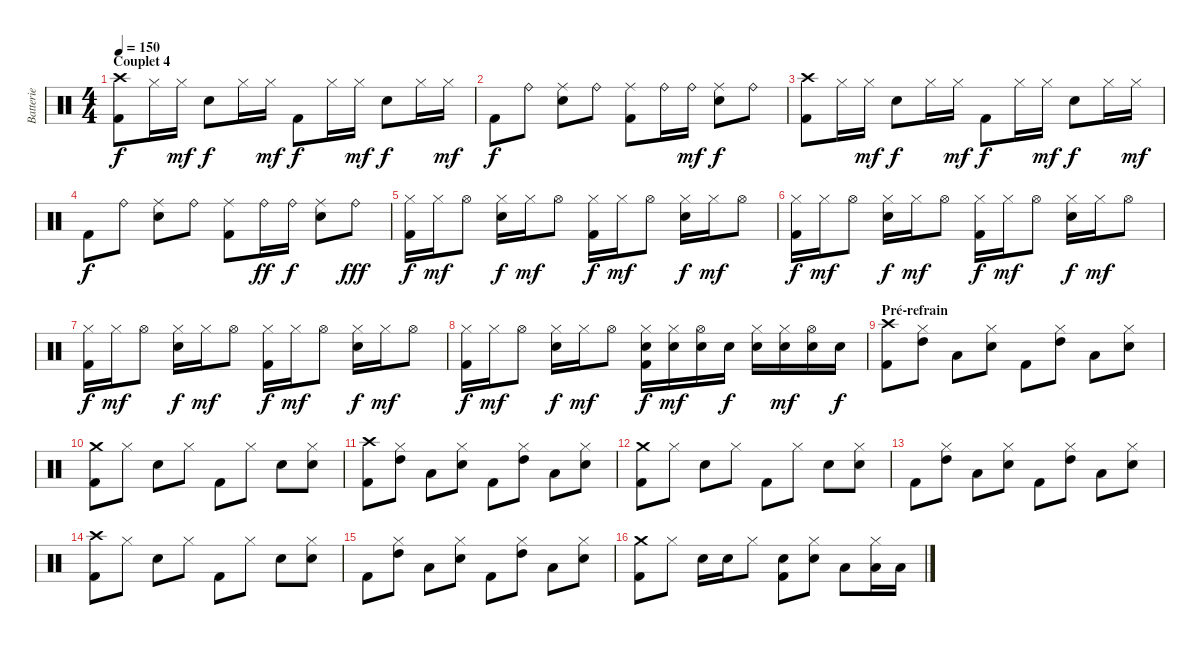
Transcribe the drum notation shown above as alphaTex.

\track ("Batterie" "Batterie") {instrument percussion}
\staff {score}
\articulation defaults
\ts (4 4)
\section ("" "Couplet 4")
\tempo 150
\clef neutral
\ks c
("Crash high (hit)" "Kick (hit) 2").8{dy f} "Hi-Hat (closed)".16 "Hi-Hat (closed)".16{dy mf} "Electric Snare (hit)".8{dy f} "Hi-Hat (closed)".16 "Hi-Hat (closed)".16{dy mf} "Kick (hit) 2".8{dy f} "Hi-Hat (closed)".16 "Hi-Hat (closed)".16{dy mf} "Electric Snare (hit)".8{dy f} "Hi-Hat (closed)".16 "Hi-Hat (closed)".16{dy mf} |
"Kick (hit) 2".8{dy f} "Ride (bell)".8 ("Ride (middle)" "Electric Snare (hit)").8 "Ride (bell)".8 ("Ride (middle)" "Kick (hit) 2").8 "Ride (bell)".16 "Ride (bell)".16{dy mf} ("Ride (middle)" "Electric Snare (hit)").8{dy f} "Ride (bell)".8 |
("Crash high (hit)" "Kick (hit) 2").8 "Hi-Hat (closed)".16 "Hi-Hat (closed)".16{dy mf} "Electric Snare (hit)".8{dy f} "Hi-Hat (closed)".16 "Hi-Hat (closed)".16{dy mf} "Kick (hit) 2".8{dy f} "Hi-Hat (closed)".16 "Hi-Hat (closed)".16{dy mf} "Electric Snare (hit)".8{dy f} "Hi-Hat (closed)".16 "Hi-Hat (closed)".16{dy mf} |
"Kick (hit) 2".8{dy f} "Ride (bell)".8 ("Ride (middle)" "Electric Snare (hit)").8 "Ride (bell)".8 ("Ride (middle)" "Kick (hit) 2").8 "Ride (bell)".16{dy ff} "Ride (bell)".16{dy f} ("Ride (middle)" "Electric Snare (hit)").8 "Ride (bell)".8{dy fff} |
("Hi-Hat (closed)" "Kick (hit) 2").16{dy f} "Hi-Hat (closed)".16{dy mf} "Hi-Hat (open)".8 ("Hi-Hat (closed)" "Electric Snare (hit)").16{dy f} "Hi-Hat (closed)".16{dy mf} "Hi-Hat (open)".8 ("Hi-Hat (closed)" "Kick (hit) 2").16{dy f} "Hi-Hat (closed)".16{dy mf} "Hi-Hat (open)".8 ("Hi-Hat (closed)" "Electric Snare (hit)").16{dy f} "Hi-Hat (closed)".16{dy mf} "Hi-Hat (open)".8 |
("Hi-Hat (closed)" "Kick (hit) 2").16{dy f} "Hi-Hat (closed)".16{dy mf} "Hi-Hat (open)".8 ("Hi-Hat (closed)" "Electric Snare (hit)").16{dy f} "Hi-Hat (closed)".16{dy mf} "Hi-Hat (open)".8 ("Hi-Hat (closed)" "Kick (hit) 2").16{dy f} "Hi-Hat (closed)".16{dy mf} "Hi-Hat (open)".8 ("Hi-Hat (closed)" "Electric Snare (hit)").16{dy f} "Hi-Hat (closed)".16{dy mf} "Hi-Hat (open)".8 |
("Hi-Hat (closed)" "Kick (hit) 2").16{dy f} "Hi-Hat (closed)".16{dy mf} "Hi-Hat (open)".8 ("Hi-Hat (closed)" "Electric Snare (hit)").16{dy f} "Hi-Hat (closed)".16{dy mf} "Hi-Hat (open)".8 ("Hi-Hat (closed)" "Kick (hit) 2").16{dy f} "Hi-Hat (closed)".16{dy mf} "Hi-Hat (open)".8 ("Hi-Hat (closed)" "Electric Snare (hit)").16{dy f} "Hi-Hat (closed)".16{dy mf} "Hi-Hat (open)".8 |
("Hi-Hat (closed)" "Kick (hit) 2").16{dy f} "Hi-Hat (closed)".16{dy mf} "Hi-Hat (open)".8 ("Hi-Hat (closed)" "Electric Snare (hit)").16{dy f} "Hi-Hat (closed)".16{dy mf} "Hi-Hat (open)".8 ("Hi-Hat (closed)" "Electric Snare (hit)" "Kick (hit) 2").16{dy f} ("Hi-Hat (closed)" "Electric Snare (hit)").16{dy mf} ("Hi-Hat (open)" "Electric Snare (hit)").16 "Electric Snare (hit)".16{dy f} ("Hi-Hat (closed)" "Electric Snare (hit)").16 ("Hi-Hat (closed)" "Electric Snare (hit)").16{dy mf} ("Hi-Hat (open)" "Electric Snare (hit)").16 "Electric Snare (hit)".16{dy f} |
\section ("" "Pré-refrain")
("Crash high (hit)" "Kick (hit) 2").8 ("Hi-Hat (closed)" "High Tom (hit)").8 "Low Floor Tom (hit)".8 ("Hi-Hat (closed)" "Electric Snare (hit)").8 "Kick (hit) 2".8 ("Hi-Hat (closed)" "High Tom (hit)").8 "Low Floor Tom (hit)".8 ("Hi-Hat (closed)" "Electric Snare (hit)").8 |
("Crash medium (hit)" "Kick (hit) 2").8 "Hi-Hat (closed)".8 "Electric Snare (hit)".8 "Hi-Hat (closed)".8 "Kick (hit) 2".8 "Hi-Hat (closed)".8 "Electric Snare (hit)".8 ("Hi-Hat (closed)" "Electric Snare (hit)").8 |
("Crash high (hit)" "Kick (hit) 2").8 ("Hi-Hat (closed)" "High Tom (hit)").8 "Low Floor Tom (hit)".8 ("Hi-Hat (closed)" "Electric Snare (hit)").8 "Kick (hit) 2".8 ("Hi-Hat (closed)" "High Tom (hit)").8 "Low Floor Tom (hit)".8 ("Hi-Hat (closed)" "Electric Snare (hit)").8 |
("Crash medium (hit)" "Kick (hit) 2").8 "Hi-Hat (closed)".8 "Electric Snare (hit)".8 "Hi-Hat (closed)".8 "Kick (hit) 2".8 "Hi-Hat (closed)".8 "Electric Snare (hit)".8 ("Hi-Hat (closed)" "Electric Snare (hit)").8 |
"Kick (hit) 2".8 ("Hi-Hat (closed)" "High Tom (hit)").8 "Low Floor Tom (hit)".8 ("Hi-Hat (closed)" "Electric Snare (hit)").8 "Kick (hit) 2".8 ("Hi-Hat (closed)" "High Tom (hit)").8 "Low Floor Tom (hit)".8 ("Hi-Hat (closed)" "Electric Snare (hit)").8 |
("Crash high (hit)" "Kick (hit) 2").8 "Hi-Hat (closed)".8 "Electric Snare (hit)".8 "Hi-Hat (closed)".8 "Kick (hit) 2".8 "Hi-Hat (closed)".8 "Electric Snare (hit)".8 ("Hi-Hat (closed)" "Electric Snare (hit)").8 |
"Kick (hit) 2".8 ("Hi-Hat (closed)" "High Tom (hit)").8 "Low Floor Tom (hit)".8 ("Hi-Hat (closed)" "Electric Snare (hit)").8 "Kick (hit) 2".8 ("Hi-Hat (closed)" "High Tom (hit)").8 "Low Floor Tom (hit)".8 ("Hi-Hat (closed)" "Electric Snare (hit)").8 |
("Crash medium (hit)" "Kick (hit) 2").8 "Hi-Hat (closed)".8 "Electric Snare (hit)".16 "Electric Snare (hit)".16 "Hi-Hat (closed)".8 ("Electric Snare (hit)" "Kick (hit) 2").8 ("Hi-Hat (closed)" "Electric Snare (hit)").8 "Low Tom (hit)".8 ("Hi-Hat (closed)" "Low Floor Tom (hit)").16 "Low Floor Tom (hit)".16
